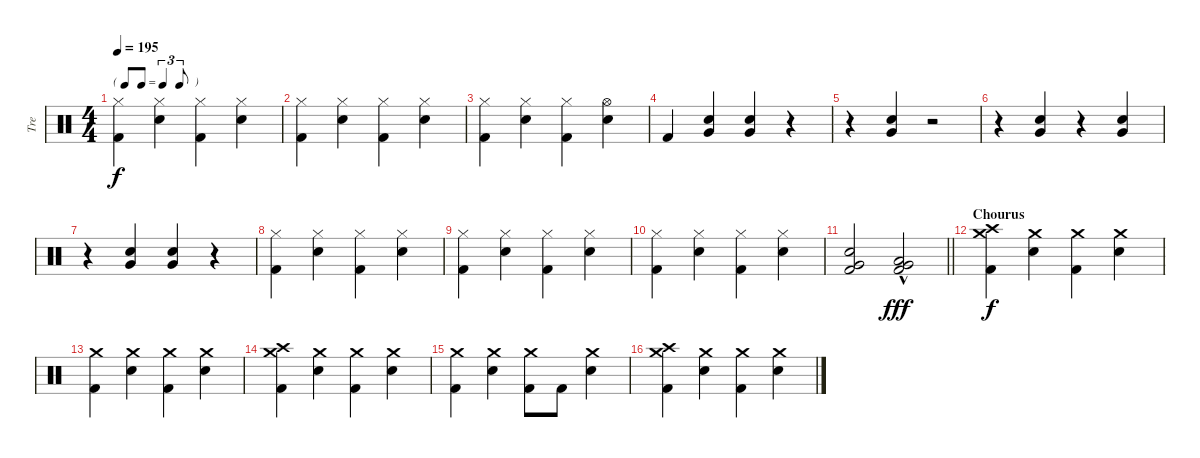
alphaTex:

\track ("Tre" "Tre") {instrument percussion}
\staff {score}
\articulation defaults
\ts (4 4)
\tf triplet8th
\tempo 195
\clef neutral
\ks c
("Hi-Hat (closed)" "Kick (hit) 2").4{dy f} ("Hi-Hat (closed)" "Snare (hit) 2").4 ("Hi-Hat (closed)" "Kick (hit) 2").4 ("Hi-Hat (closed)" "Snare (hit) 2").4 |
("Hi-Hat (closed)" "Kick (hit) 2").4 ("Hi-Hat (closed)" "Snare (hit) 2").4 ("Hi-Hat (closed)" "Kick (hit) 2").4 ("Hi-Hat (closed)" "Snare (hit) 2").4 |
("Hi-Hat (closed)" "Kick (hit) 2").4 ("Hi-Hat (closed)" "Snare (hit) 2").4 ("Hi-Hat (closed)" "Kick (hit) 2").4 ("Hi-Hat (open)" "Snare (hit) 2").4 |
"Kick (hit) 2".4 ("Snare (hit) 2" "Very Low Tom (hit)").4 ("Snare (hit) 2" "Very Low Tom (hit)").4 r.4 |
r.4 ("Snare (hit) 2" "Very Low Tom (hit)").4 r.2 |
r.4 ("Snare (hit) 2" "Very Low Tom (hit)").4 r.4 ("Snare (hit) 2" "Very Low Tom (hit)").4 |
r.4 ("Snare (hit) 2" "Very Low Tom (hit)").4 ("Snare (hit) 2" "Very Low Tom (hit)").4 r.4 |
("Hi-Hat (closed)" "Kick (hit) 2").4 ("Hi-Hat (closed)" "Snare (hit) 2").4 ("Hi-Hat (closed)" "Kick (hit) 2").4 ("Hi-Hat (closed)" "Snare (hit) 2").4 |
("Hi-Hat (closed)" "Kick (hit) 2").4 ("Hi-Hat (closed)" "Snare (hit) 2").4 ("Hi-Hat (closed)" "Kick (hit) 2").4 ("Hi-Hat (closed)" "Snare (hit) 2").4 |
("Hi-Hat (closed)" "Kick (hit) 2").4 ("Hi-Hat (closed)" "Snare (hit) 2").4 ("Hi-Hat (closed)" "Kick (hit) 2").4 ("Hi-Hat (closed)" "Snare (hit) 2").4 |
\barLineRight lightlight
("Snare (hit) 2" "Very Low Tom (hit)" "Kick (hit) 2").2 ("Very Low Tom (hit)"{hac} "Low Floor Tom (hit)"{hac} "Kick (hit) 2"{hac}).2{dy fff} |
\section ("" "Chourus")
("Crash medium (hit)" "Crash high (hit)" "Kick (hit) 2").4{dy f} ("Crash medium (hit)" "Snare (hit) 2").4 ("Crash medium (hit)" "Kick (hit) 2").4 ("Crash medium (hit)" "Snare (hit) 2").4 |
("Crash medium (hit)" "Kick (hit) 2").4 ("Crash medium (hit)" "Snare (hit) 2").4 ("Crash medium (hit)" "Kick (hit) 2").4 ("Crash medium (hit)" "Snare (hit) 2").4 |
("Crash medium (hit)" "Crash high (hit)" "Kick (hit) 2").4 ("Crash medium (hit)" "Snare (hit) 2").4 ("Crash medium (hit)" "Kick (hit) 2").4 ("Crash medium (hit)" "Snare (hit) 2").4 |
("Crash medium (hit)" "Kick (hit) 2").4 ("Crash medium (hit)" "Snare (hit) 2").4 ("Crash medium (hit)" "Kick (hit) 2").8 "Kick (hit) 2".8 ("Crash medium (hit)" "Snare (hit) 2").4 |
("Crash medium (hit)" "Crash high (hit)" "Kick (hit) 2").4 ("Crash medium (hit)" "Snare (hit) 2").4 ("Crash medium (hit)" "Kick (hit) 2").4 ("Crash medium (hit)" "Snare (hit) 2").4
